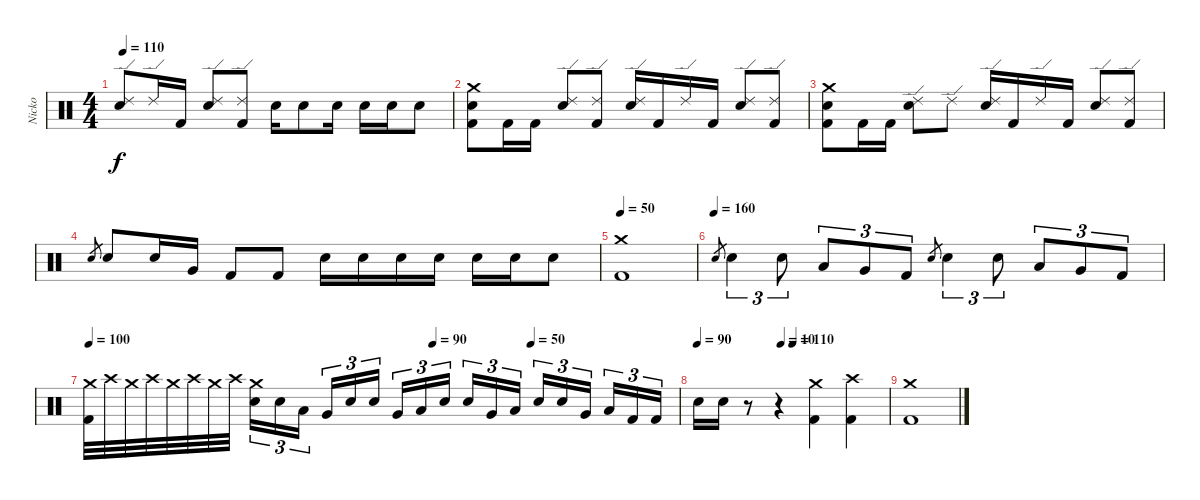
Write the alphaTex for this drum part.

\track ("Nicko" "Nicko") {instrument percussion}
\staff {score}
\articulation defaults
\ts (4 4)
\tempo 110
\clef neutral
\ks c
("Ride (edge) 2" "Electric Snare (hit)").8{dy f} "Ride (edge) 2".16 "Kick (hit) 2".16 ("Ride (edge) 2" "Electric Snare (hit)").8 ("Ride (edge) 2" "Kick (hit) 2").8 "Electric Snare (hit)".16 "Electric Snare (hit)".8 "Electric Snare (hit)".16 "Electric Snare (hit)".16 "Electric Snare (hit)".16 "Electric Snare (hit)".8 |
("Crash medium (hit)" "Electric Snare (hit)" "Kick (hit) 2").8 "Kick (hit) 2".16 "Kick (hit) 2".16 ("Ride (edge) 2" "Electric Snare (hit)").8 ("Ride (edge) 2" "Kick (hit) 2").8 ("Ride (edge) 2" "Electric Snare (hit)").16 "Kick (hit) 2".16 "Ride (edge) 2".16 "Kick (hit) 2".16 ("Ride (edge) 2" "Electric Snare (hit)").8 ("Ride (edge) 2" "Kick (hit) 2").8 |
("Crash medium (hit)" "Electric Snare (hit)" "Kick (hit) 2").8 "Kick (hit) 2".16 "Kick (hit) 2".16 ("Ride (edge) 2" "Electric Snare (hit)").8 "Ride (edge) 2".8 ("Ride (edge) 2" "Electric Snare (hit)").16 "Kick (hit) 2".16 "Ride (edge) 2".16 "Kick (hit) 2".16 ("Ride (edge) 2" "Electric Snare (hit)").8 ("Ride (edge) 2" "Kick (hit) 2").8 |
"Electric Snare (hit)".8{gr} "Electric Snare (hit)".8 "Electric Snare (hit)".16 "Very Low Tom (hit)".16 "Kick (hit) 2".8 "Kick (hit) 2".8 "Electric Snare (hit)".16 "Electric Snare (hit)".16 "Electric Snare (hit)".16 "Electric Snare (hit)".16 "Electric Snare (hit)".16 "Electric Snare (hit)".16 "Electric Snare (hit)".8 |
\tempo 50
("Crash medium (hit)" "Kick (hit) 2").1 |
\tempo (160)
"Electric Snare (hit)".8{gr} "Electric Snare (hit)".4{tu (3 2)} "Electric Snare (hit)".8{tu (3 2)} "Low Tom (hit)".8{tu (3 2)} "Very Low Tom (hit)".8{tu (3 2)} "Kick (hit) 2".8{tu (3 2)} "Electric Snare (hit)".8{gr} "Electric Snare (hit)".4{tu (3 2)} "Electric Snare (hit)".8{tu (3 2)} "Low Tom (hit)".8{tu (3 2)} "Very Low Tom (hit)".8{tu (3 2)} "Kick (hit) 2".8{tu (3 2)} |
\tempo 100
\tempo (90 0.5833333333333334)
\tempo (50 0.75)
("Crash medium (hit)" "Kick (hit) 2").32 "Crash high (hit)".32 "Crash medium (hit)".32 "Crash high (hit)".32 "Crash medium (hit)".32 "Crash high (hit)".32 "Crash medium (hit)".32 "Crash high (hit)".32 ("Crash medium (hit)" "Electric Snare (hit)").16{tu (3 2)} "Electric Snare (hit)".16{tu (3 2)} "Low Tom (hit)".16{tu (3 2)} "Very Low Tom (hit)".16{tu (3 2)} "Electric Snare (hit)".16{tu (3 2)} "Electric Snare (hit)".16{tu (3 2)} "Very Low Tom (hit)".16{tu (3 2)} "Low Floor Tom (hit)".16{tu (3 2)} "Electric Snare (hit)".16{tu (3 2)} "Electric Snare (hit)".16{tu (3 2)} "Very Low Tom (hit)".16{tu (3 2)} "Low Floor Tom (hit)".16{tu (3 2)} "Electric Snare (hit)".16{tu (3 2)} "Electric Snare (hit)".16{tu (3 2)} "Very Low Tom (hit)".16{tu (3 2)} "Low Floor Tom (hit)".16{tu (3 2)} "Kick (hit) 2".16{tu (3 2)} "Kick (hit) 2".16{tu (3 2)} |
\tempo (10 0.4375)
\tempo (110 0.5)
\tempo (90)
"Electric Snare (hit)".16 "Electric Snare (hit)".16 r.8 r.4 ("Crash medium (hit)" "Kick (hit) 2").4 ("Crash high (hit)" "Kick (hit) 2").4 |
("Crash medium (hit)" "Kick (hit) 2").1
